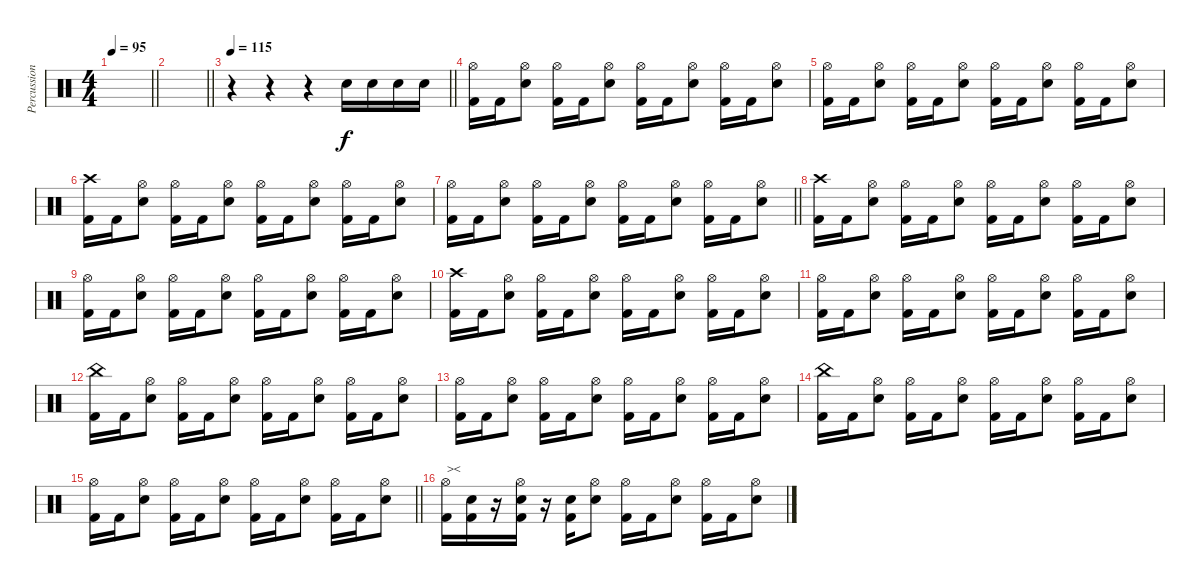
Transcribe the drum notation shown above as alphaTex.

\track ("Percussion" "Percussion") {instrument percussion}
\staff {score}
\articulation defaults
\ts (4 4)
\tempo 95
\clef neutral
\barLineRight lightlight
\ks c
|
\barLineRight lightlight
|
\tempo 115
\barLineRight lightlight
r.4 r.4 r.4 "Snare (hit) 2".16 "Snare (hit) 2".16 "Snare (hit) 2".16 "Snare (hit) 2".16 |
("Hi-Hat (open)" "Kick (hit) 2").16 "Kick (hit) 2".16 ("Hi-Hat (open)" "Snare (hit) 2").8 ("Hi-Hat (open)" "Kick (hit) 2").16 "Kick (hit) 2".16 ("Hi-Hat (open)" "Snare (hit) 2").8 ("Hi-Hat (open)" "Kick (hit) 2").16 "Kick (hit) 2".16 ("Hi-Hat (open)" "Snare (hit) 2").8 ("Hi-Hat (open)" "Kick (hit) 2").16 "Kick (hit) 2".16 ("Hi-Hat (open)" "Snare (hit) 2").8 |
("Hi-Hat (open)" "Kick (hit) 2").16 "Kick (hit) 2".16 ("Hi-Hat (open)" "Snare (hit) 2").8 ("Hi-Hat (open)" "Kick (hit) 2").16 "Kick (hit) 2".16 ("Hi-Hat (open)" "Snare (hit) 2").8 ("Hi-Hat (open)" "Kick (hit) 2").16 "Kick (hit) 2".16 ("Hi-Hat (open)" "Snare (hit) 2").8 ("Hi-Hat (open)" "Kick (hit) 2").16 "Kick (hit) 2".16 ("Hi-Hat (open)" "Snare (hit) 2").8 |
("Crash high (hit)" "Kick (hit) 2").16 "Kick (hit) 2".16 ("Hi-Hat (open)" "Snare (hit) 2").8 ("Hi-Hat (open)" "Kick (hit) 2").16 "Kick (hit) 2".16 ("Hi-Hat (open)" "Snare (hit) 2").8 ("Hi-Hat (open)" "Kick (hit) 2").16 "Kick (hit) 2".16 ("Hi-Hat (open)" "Snare (hit) 2").8 ("Hi-Hat (open)" "Kick (hit) 2").16 "Kick (hit) 2".16 ("Hi-Hat (open)" "Snare (hit) 2").8 |
\barLineRight lightlight
("Hi-Hat (open)" "Kick (hit) 2").16 "Kick (hit) 2".16 ("Hi-Hat (open)" "Snare (hit) 2").8 ("Hi-Hat (open)" "Kick (hit) 2").16 "Kick (hit) 2".16 ("Hi-Hat (open)" "Snare (hit) 2").8 ("Hi-Hat (open)" "Kick (hit) 2").16 "Kick (hit) 2".16 ("Hi-Hat (open)" "Snare (hit) 2").8 ("Hi-Hat (open)" "Kick (hit) 2").16 "Kick (hit) 2".16 ("Hi-Hat (open)" "Snare (hit) 2").8 |
("Crash high (hit)" "Kick (hit) 2").16 "Kick (hit) 2".16 ("Hi-Hat (open)" "Snare (hit) 2").8 ("Hi-Hat (open)" "Kick (hit) 2").16 "Kick (hit) 2".16 ("Hi-Hat (open)" "Snare (hit) 2").8 ("Hi-Hat (open)" "Kick (hit) 2").16 "Kick (hit) 2".16 ("Hi-Hat (open)" "Snare (hit) 2").8 ("Hi-Hat (open)" "Kick (hit) 2").16 "Kick (hit) 2".16 ("Hi-Hat (open)" "Snare (hit) 2").8 |
("Hi-Hat (open)" "Kick (hit) 2").16 "Kick (hit) 2".16 ("Hi-Hat (open)" "Snare (hit) 2").8 ("Hi-Hat (open)" "Kick (hit) 2").16 "Kick (hit) 2".16 ("Hi-Hat (open)" "Snare (hit) 2").8 ("Hi-Hat (open)" "Kick (hit) 2").16 "Kick (hit) 2".16 ("Hi-Hat (open)" "Snare (hit) 2").8 ("Hi-Hat (open)" "Kick (hit) 2").16 "Kick (hit) 2".16 ("Hi-Hat (open)" "Snare (hit) 2").8 |
("Crash high (hit)" "Kick (hit) 2").16 "Kick (hit) 2".16 ("Hi-Hat (open)" "Snare (hit) 2").8 ("Hi-Hat (open)" "Kick (hit) 2").16 "Kick (hit) 2".16 ("Hi-Hat (open)" "Snare (hit) 2").8 ("Hi-Hat (open)" "Kick (hit) 2").16 "Kick (hit) 2".16 ("Hi-Hat (open)" "Snare (hit) 2").8 ("Hi-Hat (open)" "Kick (hit) 2").16 "Kick (hit) 2".16 ("Hi-Hat (open)" "Snare (hit) 2").8 |
("Hi-Hat (open)" "Kick (hit) 2").16 "Kick (hit) 2".16 ("Hi-Hat (open)" "Snare (hit) 2").8 ("Hi-Hat (open)" "Kick (hit) 2").16 "Kick (hit) 2".16 ("Hi-Hat (open)" "Snare (hit) 2").8 ("Hi-Hat (open)" "Kick (hit) 2").16 "Kick (hit) 2".16 ("Hi-Hat (open)" "Snare (hit) 2").8 ("Hi-Hat (open)" "Kick (hit) 2").16 "Kick (hit) 2".16 ("Hi-Hat (open)" "Snare (hit) 2").8 |
("China (hit)" "Kick (hit) 2").16 "Kick (hit) 2".16 ("Hi-Hat (open)" "Snare (hit) 2").8 ("Hi-Hat (open)" "Kick (hit) 2").16 "Kick (hit) 2".16 ("Hi-Hat (open)" "Snare (hit) 2").8 ("Hi-Hat (open)" "Kick (hit) 2").16 "Kick (hit) 2".16 ("Hi-Hat (open)" "Snare (hit) 2").8 ("Hi-Hat (open)" "Kick (hit) 2").16 "Kick (hit) 2".16 ("Hi-Hat (open)" "Snare (hit) 2").8 |
("Hi-Hat (open)" "Kick (hit) 2").16 "Kick (hit) 2".16 ("Hi-Hat (open)" "Snare (hit) 2").8 ("Hi-Hat (open)" "Kick (hit) 2").16 "Kick (hit) 2".16 ("Hi-Hat (open)" "Snare (hit) 2").8 ("Hi-Hat (open)" "Kick (hit) 2").16 "Kick (hit) 2".16 ("Hi-Hat (open)" "Snare (hit) 2").8 ("Hi-Hat (open)" "Kick (hit) 2").16 "Kick (hit) 2".16 ("Hi-Hat (open)" "Snare (hit) 2").8 |
("China (hit)" "Kick (hit) 2").16 "Kick (hit) 2".16 ("Hi-Hat (open)" "Snare (hit) 2").8 ("Hi-Hat (open)" "Kick (hit) 2").16 "Kick (hit) 2".16 ("Hi-Hat (open)" "Snare (hit) 2").8 ("Hi-Hat (open)" "Kick (hit) 2").16 "Kick (hit) 2".16 ("Hi-Hat (open)" "Snare (hit) 2").8 ("Hi-Hat (open)" "Kick (hit) 2").16 "Kick (hit) 2".16 ("Hi-Hat (open)" "Snare (hit) 2").8 |
\barLineRight lightlight
("Hi-Hat (open)" "Kick (hit) 2").16 "Kick (hit) 2".16 ("Hi-Hat (open)" "Snare (hit) 2").8 ("Hi-Hat (open)" "Kick (hit) 2").16 "Kick (hit) 2".16 ("Hi-Hat (open)" "Snare (hit) 2").8 ("Hi-Hat (open)" "Kick (hit) 2").16 "Kick (hit) 2".16 ("Hi-Hat (open)" "Snare (hit) 2").8 ("Hi-Hat (open)" "Kick (hit) 2").16 "Kick (hit) 2".16 ("Hi-Hat (open)" "Snare (hit) 2").8 |
("Hi-Hat (open)" "Kick (hit) 2").16{txt "><"} ("Snare (hit) 2" "Kick (hit) 2").16 r.16 ("Hi-Hat (open)" "Snare (hit) 2" "Kick (hit) 2").16 r.16 ("Snare (hit) 2" "Kick (hit) 2").16 ("Hi-Hat (open)" "Snare (hit) 2").8 ("Hi-Hat (open)" "Kick (hit) 2").16 "Kick (hit) 2".16 ("Hi-Hat (open)" "Snare (hit) 2").8 ("Hi-Hat (open)" "Kick (hit) 2").16 "Kick (hit) 2".16 ("Hi-Hat (open)" "Snare (hit) 2").8
